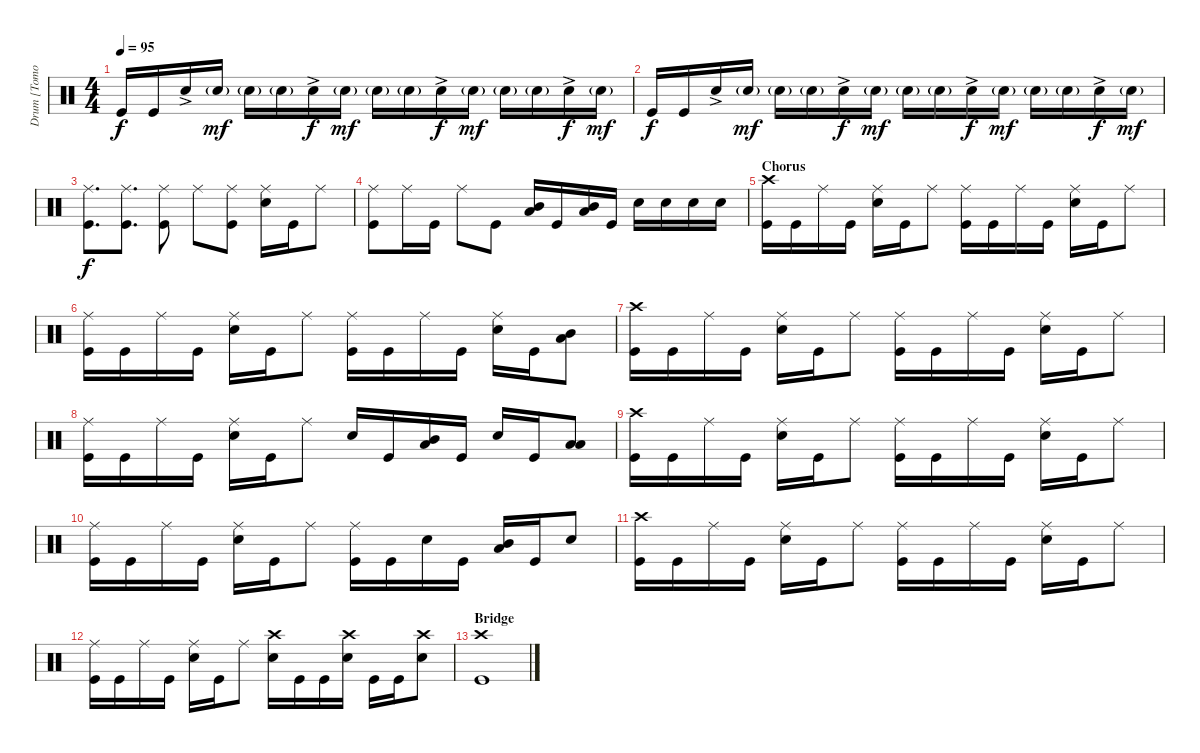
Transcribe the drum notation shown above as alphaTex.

\track ("Drum [Tomoya]" "Drum [Tomo") {instrument percussion}
\staff {score}
\articulation defaults
\ts (4 4)
\tempo 95
\clef neutral
\ks c "Kick (hit)".16{dy f} "Kick (hit)".16 "Snare (hit) 2"{ac}.16 "Snare (hit) 2"{g}.16{dy mf} "Snare (hit) 2"{g}.16 "Snare (hit) 2"{g}.16 "Snare (hit) 2"{ac}.16{dy f} "Snare (hit) 2"{g}.16{dy mf} "Snare (hit) 2"{g}.16 "Snare (hit) 2"{g}.16 "Snare (hit) 2"{ac}.16{dy f} "Snare (hit) 2"{g}.16{dy mf} "Snare (hit) 2"{g}.16 "Snare (hit) 2"{g}.16 "Snare (hit) 2"{ac}.16{dy f} "Snare (hit) 2"{g}.16{dy mf}
|
"Kick (hit)".16{dy f} "Kick (hit)".16 "Snare (hit) 2"{ac}.16 "Snare (hit) 2"{g}.16{dy mf} "Snare (hit) 2"{g}.16 "Snare (hit) 2"{g}.16 "Snare (hit) 2"{ac}.16{dy f} "Snare (hit) 2"{g}.16{dy mf} "Snare (hit) 2"{g}.16 "Snare (hit) 2"{g}.16 "Snare (hit) 2"{ac}.16{dy f} "Snare (hit) 2"{g}.16{dy mf} "Snare (hit) 2"{g}.16 "Snare (hit) 2"{g}.16 "Snare (hit) 2"{ac}.16{dy f} "Snare (hit) 2"{g}.16{dy mf} |
("Ride (middle)" "Kick (hit)").8{d dy f} ("Ride (middle)" "Kick (hit)").8{d} ("Ride (middle)" "Kick (hit)").8 "Ride (middle)".8 ("Ride (middle)" "Kick (hit)").8 ("Ride (middle)" "Snare (hit) 2").16 "Kick (hit)".16 "Ride (middle)".8 |
("Kick (hit)" "Ride (middle)").8 "Ride (middle)".16 "Kick (hit)".16 "Ride (middle)".8 "Kick (hit)".8 ("Mid Tom (hit)" "Low Tom (hit)").16 "Kick (hit)".16 ("Low Tom (hit)" "Mid Tom (hit)").16 "Kick (hit)".16 "Snare (hit) 2".16 "Snare (hit) 2".16 "Snare (hit) 2".16 "Snare (hit) 2".16 |
\section ("" "Chorus")
("Crash high (hit)" "Kick (hit)").16 "Kick (hit)".16 "Ride (middle)".16 "Kick (hit)".16 ("Ride (middle)" "Snare (hit) 2").16 "Kick (hit)".16 "Ride (middle)".8 ("Ride (middle)" "Kick (hit)").16 "Kick (hit)".16 "Ride (middle)".16 "Kick (hit)".16 ("Ride (middle)" "Snare (hit) 2").16 "Kick (hit)".16 "Ride (middle)".8 |
("Ride (middle)" "Kick (hit)").16 "Kick (hit)".16 "Ride (middle)".16 "Kick (hit)".16 ("Ride (middle)" "Snare (hit) 2").16 "Kick (hit)".16 "Ride (middle)".8 ("Ride (middle)" "Kick (hit)").16 "Kick (hit)".16 "Ride (middle)".16 "Kick (hit)".16 ("Ride (middle)" "Snare (hit) 2").16 "Kick (hit)".16 ("Mid Tom (hit)" "Low Tom (hit)").8 |
("Crash high (hit)" "Kick (hit)").16 "Kick (hit)".16 "Ride (middle)".16 "Kick (hit)".16 ("Ride (middle)" "Snare (hit) 2").16 "Kick (hit)".16 "Ride (middle)".8 ("Ride (middle)" "Kick (hit)").16 "Kick (hit)".16 "Ride (middle)".16 "Kick (hit)".16 ("Ride (middle)" "Snare (hit) 2").16 "Kick (hit)".16 "Ride (middle)".8 |
("Ride (middle)" "Kick (hit)").16 "Kick (hit)".16 "Ride (middle)".16 "Kick (hit)".16 ("Ride (middle)" "Snare (hit) 2").16 "Kick (hit)".16 "Ride (middle)".8 "Snare (hit) 2".16 "Kick (hit)".16 ("Low Tom (hit)" "Mid Tom (hit)").16 "Kick (hit)".16 "Snare (hit) 2".16 "Kick (hit)".16 ("Low Tom (hit)" "Low Floor Tom (hit)").8 |
("Crash high (hit)" "Kick (hit)").16 "Kick (hit)".16 "Ride (middle)".16 "Kick (hit)".16 ("Ride (middle)" "Snare (hit) 2").16 "Kick (hit)".16 "Ride (middle)".8 ("Ride (middle)" "Kick (hit)").16 "Kick (hit)".16 "Ride (middle)".16 "Kick (hit)".16 ("Ride (middle)" "Snare (hit) 2").16 "Kick (hit)".16 "Ride (middle)".8 |
("Ride (middle)" "Kick (hit)").16 "Kick (hit)".16 "Ride (middle)".16 "Kick (hit)".16 ("Ride (middle)" "Snare (hit) 2").16 "Kick (hit)".16 "Ride (middle)".8 ("Ride (middle)" "Kick (hit)").16 "Kick (hit)".16 "Snare (hit) 2".16 "Kick (hit)".16 ("Mid Tom (hit)" "Low Tom (hit)").16 "Kick (hit)".16 "Snare (hit) 2".8 |
("Crash high (hit)" "Kick (hit)").16 "Kick (hit)".16 "Ride (middle)".16 "Kick (hit)".16 ("Ride (middle)" "Snare (hit) 2").16 "Kick (hit)".16 "Ride (middle)".8 ("Ride (middle)" "Kick (hit)").16 "Kick (hit)".16 "Ride (middle)".16 "Kick (hit)".16 ("Ride (middle)" "Snare (hit) 2").16 "Kick (hit)".16 "Ride (middle)".8 |
("Ride (middle)" "Kick (hit)").16 "Kick (hit)".16 "Ride (middle)".16 "Kick (hit)".16 ("Ride (middle)" "Snare (hit) 2").16 "Kick (hit)".16 "Ride (middle)".8 ("Crash high (hit)" "Snare (hit) 2").16 "Kick (hit)".16 "Kick (hit)".16 ("Crash high (hit)" "Snare (hit) 2").16 "Kick (hit)".16 "Kick (hit)".16 ("Crash high (hit)" "Snare (hit) 2").8 |
\section ("" "Bridge")
("Crash high (hit)" "Kick (hit)").1
